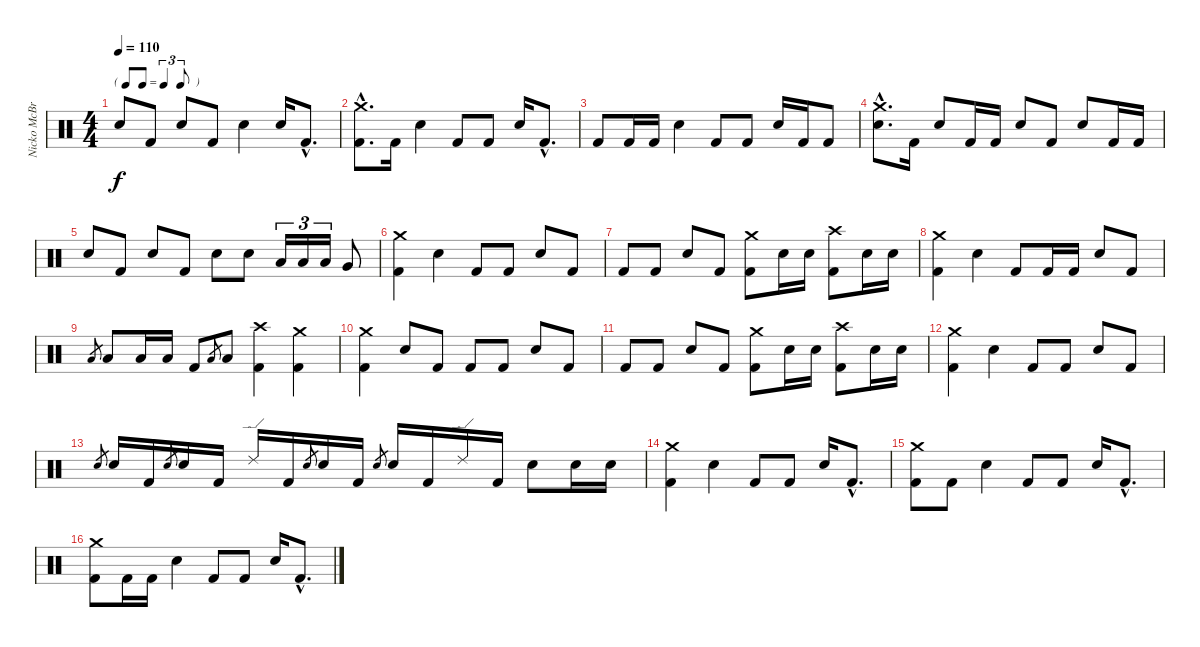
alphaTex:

\track ("Nicko McBrain" "Nicko McBr") {instrument percussion}
\staff {score}
\articulation defaults
\ts (4 4)
\tf triplet8th
\tempo 110
\clef neutral
\ks c "Electric Snare (hit)".8{dy f} "Kick (hit) 2".8 "Electric Snare (hit)".8 "Kick (hit) 2".8 "Electric Snare (hit)".4 "Electric Snare (hit)".16 "Kick (hit) 2"{hac}.8{d}
|
("Crash medium (hit)"{hac} "Kick (hit) 2"{hac}).8{d} "Kick (hit) 2".16 "Electric Snare (hit)".4 "Kick (hit) 2".8 "Kick (hit) 2".8 "Electric Snare (hit)".16 "Kick (hit) 2"{hac}.8{d} |
"Kick (hit) 2".8 "Kick (hit) 2".16 "Kick (hit) 2".16 "Electric Snare (hit)".4 "Kick (hit) 2".8 "Kick (hit) 2".8 "Electric Snare (hit)".16 "Kick (hit) 2".16 "Kick (hit) 2".8 |
("Crash medium (hit)"{hac} "Electric Snare (hit)"{hac}).8{d} "Kick (hit) 2".16 "Electric Snare (hit)".8 "Kick (hit) 2".16 "Kick (hit) 2".16 "Electric Snare (hit)".8 "Kick (hit) 2".8 "Electric Snare (hit)".8 "Kick (hit) 2".16 "Kick (hit) 2".16 |
"Electric Snare (hit)".8 "Kick (hit) 2".8 "Electric Snare (hit)".8 "Kick (hit) 2".8 "Electric Snare (hit)".8 "Electric Snare (hit)".8 "Low Tom (hit)".16{tu (3 2)} "Low Tom (hit)".16{tu (3 2)} "Low Tom (hit)".16{tu (3 2)} "Very Low Tom (hit)".8 |
("Crash medium (hit)" "Kick (hit) 2").4 "Electric Snare (hit)".4 "Kick (hit) 2".8 "Kick (hit) 2".8 "Electric Snare (hit)".8 "Kick (hit) 2".8 |
"Kick (hit) 2".8 "Kick (hit) 2".8 "Electric Snare (hit)".8 "Kick (hit) 2".8 ("Crash medium (hit)" "Kick (hit) 2").8 "Electric Snare (hit)".16 "Electric Snare (hit)".16 ("Crash high (hit)" "Kick (hit) 2").8 "Electric Snare (hit)".16 "Electric Snare (hit)".16 |
("Crash medium (hit)" "Kick (hit) 2").4 "Electric Snare (hit)".4 "Kick (hit) 2".8 "Kick (hit) 2".16 "Kick (hit) 2".16 "Electric Snare (hit)".8 "Kick (hit) 2".8 |
"Low Tom (hit)".8{gr} "Low Tom (hit)".8 "Low Tom (hit)".16 "Low Tom (hit)".16 "Kick (hit) 2".8 "Low Tom (hit)".8{gr} "Low Tom (hit)".8 ("Crash high (hit)" "Kick (hit) 2").4 ("Crash medium (hit)" "Kick (hit) 2").4 |
("Crash medium (hit)" "Kick (hit) 2").4 "Electric Snare (hit)".8 "Kick (hit) 2".8 "Kick (hit) 2".8 "Kick (hit) 2".8 "Electric Snare (hit)".8 "Kick (hit) 2".8 |
"Kick (hit) 2".8 "Kick (hit) 2".8 "Electric Snare (hit)".8 "Kick (hit) 2".8 ("Crash medium (hit)" "Kick (hit) 2").8 "Electric Snare (hit)".16 "Electric Snare (hit)".16 ("Crash high (hit)" "Kick (hit) 2").8 "Electric Snare (hit)".16 "Electric Snare (hit)".16 |
("Crash medium (hit)" "Kick (hit) 2").4 "Electric Snare (hit)".4 "Kick (hit) 2".8 "Kick (hit) 2".8 "Electric Snare (hit)".8 "Kick (hit) 2".8 |
"Electric Snare (hit)".8{gr} "Electric Snare (hit)".16 "Kick (hit) 2".16 "Electric Snare (hit)".8{gr} "Electric Snare (hit)".16 "Kick (hit) 2".16 "Ride (edge) 2".16 "Kick (hit) 2".16 "Electric Snare (hit)".8{gr} "Electric Snare (hit)".16 "Kick (hit) 2".16 "Electric Snare (hit)".8{gr} "Electric Snare (hit)".16 "Kick (hit) 2".16 "Ride (edge) 2".16 "Kick (hit) 2".16 "Electric Snare (hit)".8 "Electric Snare (hit)".16 "Electric Snare (hit)".16 |
("Crash medium (hit)" "Kick (hit) 2").4 "Electric Snare (hit)".4 "Kick (hit) 2".8 "Kick (hit) 2".8 "Electric Snare (hit)".16 "Kick (hit) 2"{hac}.8{d} |
("Crash medium (hit)" "Kick (hit) 2").8 "Kick (hit) 2".8 "Electric Snare (hit)".4 "Kick (hit) 2".8 "Kick (hit) 2".8 "Electric Snare (hit)".16 "Kick (hit) 2"{hac}.8{d} |
("Crash medium (hit)" "Kick (hit) 2").8 "Kick (hit) 2".16 "Kick (hit) 2".16 "Electric Snare (hit)".4 "Kick (hit) 2".8 "Kick (hit) 2".8 "Electric Snare (hit)".16 "Kick (hit) 2"{hac}.8{d}
